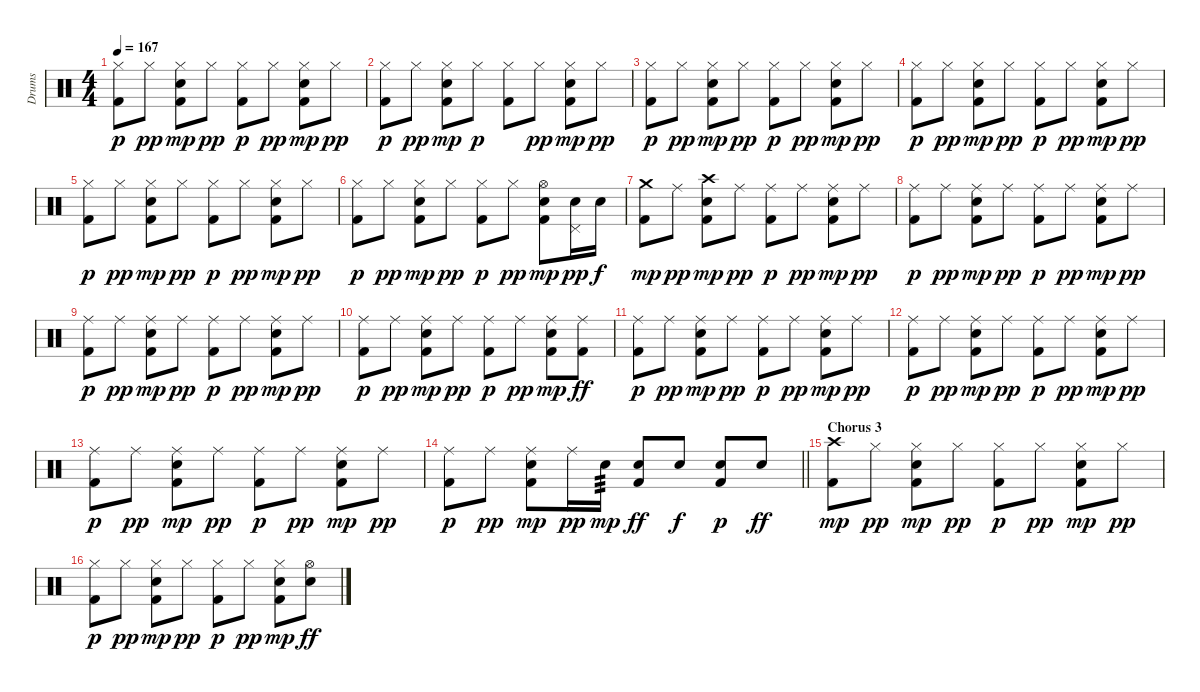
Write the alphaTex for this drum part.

\track ("Drums" "Drums") {instrument percussion}
\staff {score}
\articulation defaults
\ts (4 4)
\tempo 167
\clef neutral
\ks aminor
("Hi-Hat (closed)" "Kick (hit) 2").8{dy p} "Hi-Hat (closed)".8{dy pp} ("Hi-Hat (closed)" "Electric Snare (hit)" "Kick (hit) 2").8{dy mp} "Hi-Hat (closed)".8{dy pp} ("Hi-Hat (closed)" "Kick (hit) 2").8{dy p} "Hi-Hat (closed)".8{dy pp} ("Hi-Hat (closed)" "Electric Snare (hit)" "Kick (hit) 2").8{dy mp} "Hi-Hat (closed)".8{dy pp} |
("Hi-Hat (closed)" "Kick (hit) 2").8{dy p} "Hi-Hat (closed)".8{dy pp} ("Hi-Hat (closed)" "Electric Snare (hit)" "Kick (hit) 2").8{dy mp} "Hi-Hat (closed)".8{dy p} ("Hi-Hat (closed)" "Kick (hit) 2").8 "Hi-Hat (closed)".8{dy pp} ("Hi-Hat (closed)" "Electric Snare (hit)" "Kick (hit) 2").8{dy mp} "Hi-Hat (closed)".8{dy pp} |
("Hi-Hat (closed)" "Kick (hit) 2").8{dy p} "Hi-Hat (closed)".8{dy pp} ("Hi-Hat (closed)" "Electric Snare (hit)" "Kick (hit) 2").8{dy mp} "Hi-Hat (closed)".8{dy pp} ("Hi-Hat (closed)" "Kick (hit) 2").8{dy p} "Hi-Hat (closed)".8{dy pp} ("Hi-Hat (closed)" "Electric Snare (hit)" "Kick (hit) 2").8{dy mp} "Hi-Hat (closed)".8{dy pp} |
("Hi-Hat (closed)" "Kick (hit) 2").8{dy p} "Hi-Hat (closed)".8{dy pp} ("Hi-Hat (closed)" "Electric Snare (hit)" "Kick (hit) 2").8{dy mp} "Hi-Hat (closed)".8{dy pp} ("Hi-Hat (closed)" "Kick (hit) 2").8{dy p} "Hi-Hat (closed)".8{dy pp} ("Hi-Hat (closed)" "Electric Snare (hit)" "Kick (hit) 2").8{dy mp} "Hi-Hat (closed)".8{dy pp} |
("Hi-Hat (closed)" "Kick (hit) 2").8{dy p} "Hi-Hat (closed)".8{dy pp} ("Hi-Hat (closed)" "Electric Snare (hit)" "Kick (hit) 2").8{dy mp} "Hi-Hat (closed)".8{dy pp} ("Hi-Hat (closed)" "Kick (hit) 2").8{dy p} "Hi-Hat (closed)".8{dy pp} ("Hi-Hat (closed)" "Electric Snare (hit)" "Kick (hit) 2").8{dy mp} "Hi-Hat (closed)".8{dy pp} |
("Hi-Hat (closed)" "Kick (hit) 2").8{dy p} "Hi-Hat (closed)".8{dy pp} ("Hi-Hat (closed)" "Electric Snare (hit)" "Kick (hit) 2").8{dy mp} "Hi-Hat (closed)".8{dy pp} ("Hi-Hat (closed)" "Kick (hit) 2").8{dy p} "Hi-Hat (closed)".8{dy pp} ("Hi-Hat (open)" "Electric Snare (hit)" "Kick (hit) 2").8{dy mp} ("Electric Snare (hit)" "Pedal Hi-Hat (hit)").16{dy pp} "Electric Snare (hit)".16{dy f} |
("Crash medium (hit)" "Kick (hit) 2").8{dy mp} "Ride (middle)".8{dy pp} ("Kick (hit) 2" "Electric Snare (hit)" "Crash high (hit)").8{dy mp} "Ride (middle)".8{dy pp} ("Ride (middle)" "Kick (hit) 2").8{dy p} "Ride (middle)".8{dy pp} ("Ride (middle)" "Kick (hit) 2" "Electric Snare (hit)").8{dy mp} "Ride (middle)".8{dy pp} |
("Ride (middle)" "Kick (hit) 2").8{dy p} "Ride (middle)".8{dy pp} ("Ride (middle)" "Kick (hit) 2" "Electric Snare (hit)").8{dy mp} "Ride (middle)".8{dy pp} ("Ride (middle)" "Kick (hit) 2").8{dy p} "Ride (middle)".8{dy pp} ("Ride (middle)" "Kick (hit) 2" "Electric Snare (hit)").8{dy mp} "Ride (middle)".8{dy pp} |
("Ride (middle)" "Kick (hit) 2").8{dy p} "Ride (middle)".8{dy pp} ("Ride (middle)" "Kick (hit) 2" "Electric Snare (hit)").8{dy mp} "Ride (middle)".8{dy pp} ("Ride (middle)" "Kick (hit) 2").8{dy p} "Ride (middle)".8{dy pp} ("Ride (middle)" "Kick (hit) 2" "Electric Snare (hit)").8{dy mp} "Ride (middle)".8{dy pp} |
("Ride (middle)" "Kick (hit) 2").8{dy p} "Ride (middle)".8{dy pp} ("Ride (middle)" "Kick (hit) 2" "Electric Snare (hit)").8{dy mp} "Ride (middle)".8{dy pp} ("Ride (middle)" "Kick (hit) 2").8{dy p} "Ride (middle)".8{dy pp} ("Ride (middle)" "Kick (hit) 2" "Electric Snare (hit)").8{dy mp} ("Ride (middle)" "Kick (hit) 2").8{dy ff} |
("Ride (middle)" "Kick (hit) 2").8{dy p} "Ride (middle)".8{dy pp} ("Ride (middle)" "Kick (hit) 2" "Electric Snare (hit)").8{dy mp} "Ride (middle)".8{dy pp} ("Ride (middle)" "Kick (hit) 2").8{dy p} "Ride (middle)".8{dy pp} ("Ride (middle)" "Kick (hit) 2" "Electric Snare (hit)").8{dy mp} "Ride (middle)".8{dy pp} |
("Ride (middle)" "Kick (hit) 2").8{dy p} "Ride (middle)".8{dy pp} ("Ride (middle)" "Kick (hit) 2" "Electric Snare (hit)").8{dy mp} "Ride (middle)".8{dy pp} ("Ride (middle)" "Kick (hit) 2").8{dy p} "Ride (middle)".8{dy pp} ("Ride (middle)" "Kick (hit) 2" "Electric Snare (hit)").8{dy mp} "Ride (middle)".8{dy pp} |
("Ride (middle)" "Kick (hit) 2").8{dy p} "Ride (middle)".8{dy pp} ("Ride (middle)" "Kick (hit) 2" "Electric Snare (hit)").8{dy mp} "Ride (middle)".8{dy pp} ("Ride (middle)" "Kick (hit) 2").8{dy p} "Ride (middle)".8{dy pp} ("Ride (middle)" "Kick (hit) 2" "Electric Snare (hit)").8{dy mp} "Ride (middle)".8{dy pp} |
\barLineRight lightlight
("Ride (middle)" "Kick (hit) 2").8{dy p} "Ride (middle)".8{dy pp} ("Ride (middle)" "Kick (hit) 2" "Electric Snare (hit)").8{dy mp} "Ride (middle)".16{dy pp} "Electric Snare (hit)".16{tp 3 dy mp} ("Electric Snare (hit)" "Kick (hit) 2").8{dy ff} "Electric Snare (hit)".8{dy f} ("Electric Snare (hit)" "Kick (hit) 2").8{dy p} "Electric Snare (hit)".8{dy ff} |
\section ("" "Chorus 3")
("Kick (hit) 2" "Crash high (hit)").8{dy mp} "Hi-Hat (closed)".8{dy pp} ("Hi-Hat (closed)" "Electric Snare (hit)" "Kick (hit) 2").8{dy mp} "Hi-Hat (closed)".8{dy pp} ("Hi-Hat (closed)" "Kick (hit) 2").8{dy p} "Hi-Hat (closed)".8{dy pp} ("Hi-Hat (closed)" "Electric Snare (hit)" "Kick (hit) 2").8{dy mp} "Hi-Hat (closed)".8{dy pp} |
("Hi-Hat (closed)" "Kick (hit) 2").8{dy p} "Hi-Hat (closed)".8{dy pp} ("Hi-Hat (closed)" "Electric Snare (hit)" "Kick (hit) 2").8{dy mp} "Hi-Hat (closed)".8{dy pp} ("Hi-Hat (closed)" "Kick (hit) 2").8{dy p} "Hi-Hat (closed)".8{dy pp} ("Hi-Hat (closed)" "Electric Snare (hit)" "Kick (hit) 2").8{dy mp} ("Hi-Hat (open)" "Electric Snare (hit)").8{dy ff}
